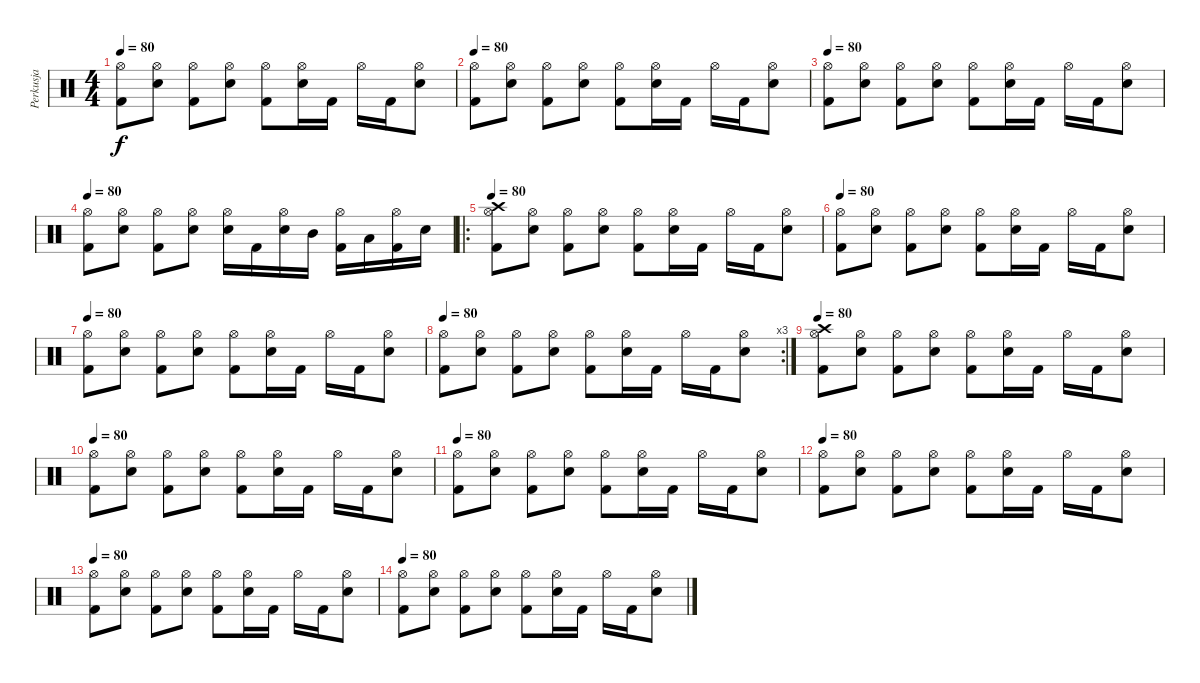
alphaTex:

\track ("Perkusja" "Perkusja") {instrument percussion}
\staff {score}
\articulation defaults
\ts (4 4)
\tempo 80
\clef neutral
\ks c
("Hi-Hat (open)" "Kick (hit) 2").8{dy f} ("Hi-Hat (open)" "Electric Snare (hit)").8 ("Hi-Hat (open)" "Kick (hit) 2").8 ("Hi-Hat (open)" "Electric Snare (hit)").8 ("Hi-Hat (open)" "Kick (hit) 2").8 ("Hi-Hat (open)" "Electric Snare (hit)").16 "Kick (hit) 2".16 "Hi-Hat (open)".16 "Kick (hit) 2".16 ("Hi-Hat (open)" "Electric Snare (hit)").8 |
\tempo 80
("Hi-Hat (open)" "Kick (hit) 2").8 ("Hi-Hat (open)" "Electric Snare (hit)").8 ("Hi-Hat (open)" "Kick (hit) 2").8 ("Hi-Hat (open)" "Electric Snare (hit)").8 ("Hi-Hat (open)" "Kick (hit) 2").8 ("Hi-Hat (open)" "Electric Snare (hit)").16 "Kick (hit) 2".16 "Hi-Hat (open)".16 "Kick (hit) 2".16 ("Hi-Hat (open)" "Electric Snare (hit)").8 |
\tempo 80
("Hi-Hat (open)" "Kick (hit) 2").8 ("Hi-Hat (open)" "Electric Snare (hit)").8 ("Hi-Hat (open)" "Kick (hit) 2").8 ("Hi-Hat (open)" "Electric Snare (hit)").8 ("Hi-Hat (open)" "Kick (hit) 2").8 ("Hi-Hat (open)" "Electric Snare (hit)").16 "Kick (hit) 2".16 "Hi-Hat (open)".16 "Kick (hit) 2".16 ("Hi-Hat (open)" "Electric Snare (hit)").8 |
\tempo 80
("Hi-Hat (open)" "Kick (hit) 2").8 ("Hi-Hat (open)" "Electric Snare (hit)").8 ("Hi-Hat (open)" "Kick (hit) 2").8 ("Hi-Hat (open)" "Electric Snare (hit)").8 ("Hi-Hat (open)" "Electric Snare (hit)").16 "Kick (hit) 2".16 ("Hi-Hat (open)" "Electric Snare (hit)").16 "Mid Tom (hit)".16 ("Hi-Hat (open)" "Kick (hit) 2").16 "Low Tom (hit)".16 ("Hi-Hat (open)" "Kick (hit) 2").16 "Electric Snare (hit)".16 |
\ro
\tempo 80
("Hi-Hat (open)" "Kick (hit) 2" "Crash high (hit)").8 ("Hi-Hat (open)" "Electric Snare (hit)").8 ("Hi-Hat (open)" "Kick (hit) 2").8 ("Hi-Hat (open)" "Electric Snare (hit)").8 ("Hi-Hat (open)" "Kick (hit) 2").8 ("Hi-Hat (open)" "Electric Snare (hit)").16 "Kick (hit) 2".16 "Hi-Hat (open)".16 "Kick (hit) 2".16 ("Hi-Hat (open)" "Electric Snare (hit)").8 |
\tempo 80
("Hi-Hat (open)" "Kick (hit) 2").8 ("Hi-Hat (open)" "Electric Snare (hit)").8 ("Hi-Hat (open)" "Kick (hit) 2").8 ("Hi-Hat (open)" "Electric Snare (hit)").8 ("Hi-Hat (open)" "Kick (hit) 2").8 ("Hi-Hat (open)" "Electric Snare (hit)").16 "Kick (hit) 2".16 "Hi-Hat (open)".16 "Kick (hit) 2".16 ("Hi-Hat (open)" "Electric Snare (hit)").8 |
\tempo 80
("Hi-Hat (open)" "Kick (hit) 2").8 ("Hi-Hat (open)" "Electric Snare (hit)").8 ("Hi-Hat (open)" "Kick (hit) 2").8 ("Hi-Hat (open)" "Electric Snare (hit)").8 ("Hi-Hat (open)" "Kick (hit) 2").8 ("Hi-Hat (open)" "Electric Snare (hit)").16 "Kick (hit) 2".16 "Hi-Hat (open)".16 "Kick (hit) 2".16 ("Hi-Hat (open)" "Electric Snare (hit)").8 |
\rc 3
\tempo 80
("Hi-Hat (open)" "Kick (hit) 2").8 ("Hi-Hat (open)" "Electric Snare (hit)").8 ("Hi-Hat (open)" "Kick (hit) 2").8 ("Hi-Hat (open)" "Electric Snare (hit)").8 ("Hi-Hat (open)" "Kick (hit) 2").8 ("Hi-Hat (open)" "Electric Snare (hit)").16 "Kick (hit) 2".16 "Hi-Hat (open)".16 "Kick (hit) 2".16 ("Hi-Hat (open)" "Electric Snare (hit)").8 |
\tempo 80
("Hi-Hat (open)" "Kick (hit) 2" "Crash high (hit)").8 ("Hi-Hat (open)" "Electric Snare (hit)").8 ("Hi-Hat (open)" "Kick (hit) 2").8 ("Hi-Hat (open)" "Electric Snare (hit)").8 ("Hi-Hat (open)" "Kick (hit) 2").8 ("Hi-Hat (open)" "Electric Snare (hit)").16 "Kick (hit) 2".16 "Hi-Hat (open)".16 "Kick (hit) 2".16 ("Hi-Hat (open)" "Electric Snare (hit)").8 |
\tempo 80
("Hi-Hat (open)" "Kick (hit) 2").8 ("Hi-Hat (open)" "Electric Snare (hit)").8 ("Hi-Hat (open)" "Kick (hit) 2").8 ("Hi-Hat (open)" "Electric Snare (hit)").8 ("Hi-Hat (open)" "Kick (hit) 2").8 ("Hi-Hat (open)" "Electric Snare (hit)").16 "Kick (hit) 2".16 "Hi-Hat (open)".16 "Kick (hit) 2".16 ("Hi-Hat (open)" "Electric Snare (hit)").8 |
\tempo 80
("Hi-Hat (open)" "Kick (hit) 2").8 ("Hi-Hat (open)" "Electric Snare (hit)").8 ("Hi-Hat (open)" "Kick (hit) 2").8 ("Hi-Hat (open)" "Electric Snare (hit)").8 ("Hi-Hat (open)" "Kick (hit) 2").8 ("Hi-Hat (open)" "Electric Snare (hit)").16 "Kick (hit) 2".16 "Hi-Hat (open)".16 "Kick (hit) 2".16 ("Hi-Hat (open)" "Electric Snare (hit)").8 |
\tempo 80
("Hi-Hat (open)" "Kick (hit) 2").8 ("Hi-Hat (open)" "Electric Snare (hit)").8 ("Hi-Hat (open)" "Kick (hit) 2").8 ("Hi-Hat (open)" "Electric Snare (hit)").8 ("Hi-Hat (open)" "Kick (hit) 2").8 ("Hi-Hat (open)" "Electric Snare (hit)").16 "Kick (hit) 2".16 "Hi-Hat (open)".16 "Kick (hit) 2".16 ("Hi-Hat (open)" "Electric Snare (hit)").8 |
\tempo 80
("Hi-Hat (open)" "Kick (hit) 2").8 ("Hi-Hat (open)" "Electric Snare (hit)").8 ("Hi-Hat (open)" "Kick (hit) 2").8 ("Hi-Hat (open)" "Electric Snare (hit)").8 ("Hi-Hat (open)" "Kick (hit) 2").8 ("Hi-Hat (open)" "Electric Snare (hit)").16 "Kick (hit) 2".16 "Hi-Hat (open)".16 "Kick (hit) 2".16 ("Hi-Hat (open)" "Electric Snare (hit)").8 |
\tempo 80
("Hi-Hat (open)" "Kick (hit) 2").8 ("Hi-Hat (open)" "Electric Snare (hit)").8 ("Hi-Hat (open)" "Kick (hit) 2").8 ("Hi-Hat (open)" "Electric Snare (hit)").8 ("Hi-Hat (open)" "Kick (hit) 2").8 ("Hi-Hat (open)" "Electric Snare (hit)").16 "Kick (hit) 2".16 "Hi-Hat (open)".16 "Kick (hit) 2".16 ("Hi-Hat (open)" "Electric Snare (hit)").8
